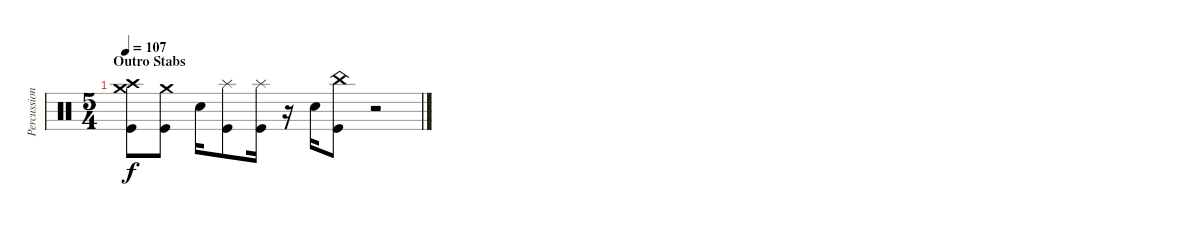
\track ("Percussion" "Percussion") {instrument percussion}
\staff {score}
\articulation defaults
\ts (5 4)
\section ("" "Outro Stabs")
\tempo 107
\clef neutral
\ks c
("Crash medium (hit)" "Crash high (hit)" "Kick (hit)").8{dy f} ("Crash medium (hit)" "Kick (hit)").8 "Electric Snare (hit)".16 ("Splash (hit)" "Kick (hit)").8 ("Splash (hit)" "Kick (hit)").16 r.16 "Electric Snare (hit)".16 ("Kick (hit)" "China (hit)").8 r.2
